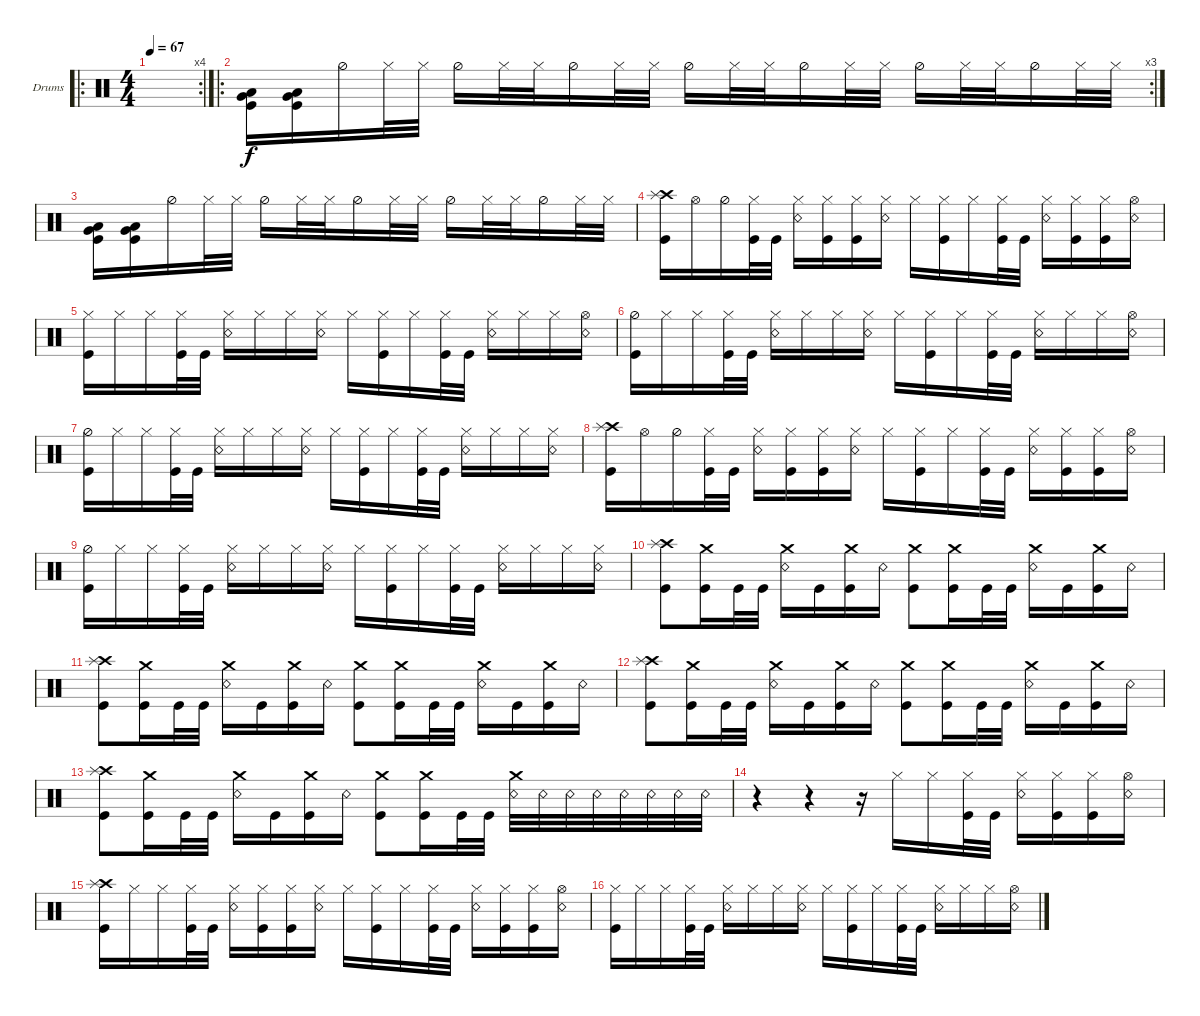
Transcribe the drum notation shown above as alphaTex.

\defaultSystemsLayout 4
\bracketExtendMode groupsimilarinstruments
\firstSystemTrackNameOrientation horizontal
\otherSystemsTrackNameOrientation horizontal
\track ("Drumkit" "Drums") {instrument percussion}
\staff {score}
\articulation defaults
\ro
\rc 4
\ts (4 4)
\tempo 67
\clef neutral
\ks c
|
\ro
\rc 3
("Kick (hit)" "Very Low Tom (hit)" "Low Tom (hit)").16 ("Kick (hit)" "Very Low Tom (hit)" "Low Tom (hit)").16 "Hi-Hat (half)".16 "Hi-Hat (closed)".32 "Hi-Hat (closed)".32 "Hi-Hat (half)".16 "Hi-Hat (closed)".32 "Hi-Hat (closed)".32 "Hi-Hat (half)".16 "Hi-Hat (closed)".32 "Hi-Hat (closed)".32 "Hi-Hat (half)".16 "Hi-Hat (closed)".32 "Hi-Hat (closed)".32 "Hi-Hat (half)".16 "Hi-Hat (closed)".32 "Hi-Hat (closed)".32 "Hi-Hat (half)".16 "Hi-Hat (closed)".32 "Hi-Hat (closed)".32 "Hi-Hat (half)".16 "Hi-Hat (closed)".32 "Hi-Hat (closed)".32 |
("Kick (hit)" "Very Low Tom (hit)" "Low Tom (hit)").16 ("Kick (hit)" "Very Low Tom (hit)" "Low Tom (hit)").16 "Hi-Hat (half)".16 "Hi-Hat (closed)".32 "Hi-Hat (closed)".32 "Hi-Hat (half)".16 "Hi-Hat (closed)".32 "Hi-Hat (closed)".32 "Hi-Hat (half)".16 "Hi-Hat (closed)".32 "Hi-Hat (closed)".32 "Hi-Hat (half)".16 "Hi-Hat (closed)".32 "Hi-Hat (closed)".32 "Hi-Hat (half)".16 "Hi-Hat (closed)".32 "Hi-Hat (closed)".32 |
("Kick (hit)" "Crash high (hit)" "Splash (hit)").16 "Hi-Hat (open)".16 "Hi-Hat (half)".16 ("Kick (hit)" "Hi-Hat (closed)").32 "Kick (hit)".32 ("Snare (rim shot)" "Hi-Hat (closed)").16 ("Hi-Hat (closed)" "Kick (hit)").16 ("Hi-Hat (closed)" "Kick (hit)").16 ("Snare (rim shot)" "Hi-Hat (closed)").16 "Hi-Hat (closed)".16 ("Hi-Hat (closed)" "Kick (hit)").16 "Hi-Hat (closed)".16 ("Kick (hit)" "Hi-Hat (closed)").32 "Kick (hit)".32 ("Snare (rim shot)" "Hi-Hat (closed)").16 ("Hi-Hat (closed)" "Kick (hit)").16 ("Hi-Hat (closed)" "Kick (hit)").16 ("Snare (rim shot)" "Hi-Hat (open)").16 |
("Kick (hit)" "Hi-Hat (closed)").16 "Hi-Hat (closed)".16 "Hi-Hat (closed)".16 ("Kick (hit)" "Hi-Hat (closed)").32 "Kick (hit)".32 ("Snare (rim shot)" "Hi-Hat (closed)").16 "Hi-Hat (closed)".16 "Hi-Hat (closed)".16 ("Snare (rim shot)" "Hi-Hat (closed)").16 "Hi-Hat (closed)".16 ("Hi-Hat (closed)" "Kick (hit)").16 "Hi-Hat (closed)".16 ("Hi-Hat (closed)" "Kick (hit)").32 "Kick (hit)".32 ("Snare (rim shot)" "Hi-Hat (closed)").16 "Hi-Hat (closed)".16 "Hi-Hat (closed)".16 ("Snare (rim shot)" "Hi-Hat (open)").16 |
("Kick (hit)" "Hi-Hat (half)").16 "Hi-Hat (closed)".16 "Hi-Hat (closed)".16 ("Kick (hit)" "Hi-Hat (closed)").32 "Kick (hit)".32 ("Snare (rim shot)" "Hi-Hat (closed)").16 "Hi-Hat (closed)".16 "Hi-Hat (closed)".16 ("Snare (rim shot)" "Hi-Hat (closed)").16 "Hi-Hat (closed)".16 ("Hi-Hat (closed)" "Kick (hit)").16 "Hi-Hat (closed)".16 ("Hi-Hat (closed)" "Kick (hit)").32 "Kick (hit)".32 ("Snare (rim shot)" "Hi-Hat (closed)").16 "Hi-Hat (closed)".16 "Hi-Hat (closed)".16 ("Snare (rim shot)" "Hi-Hat (open)").16 |
("Kick (hit)" "Hi-Hat (half)").16 "Hi-Hat (closed)".16 "Hi-Hat (closed)".16 ("Kick (hit)" "Hi-Hat (closed)").32 "Kick (hit)".32 ("Snare (rim shot)" "Hi-Hat (closed)").16 "Hi-Hat (closed)".16 "Hi-Hat (closed)".16 ("Snare (rim shot)" "Hi-Hat (closed)").16 "Hi-Hat (closed)".16 ("Hi-Hat (closed)" "Kick (hit)").16 "Hi-Hat (closed)".16 ("Hi-Hat (closed)" "Kick (hit)").32 "Kick (hit)".32 ("Snare (rim shot)" "Hi-Hat (closed)").16 "Hi-Hat (closed)".16 "Hi-Hat (closed)".16 ("Snare (rim shot)" "Hi-Hat (closed)").16 |
("Kick (hit)" "Crash high (hit)" "Splash (hit)").16 "Hi-Hat (open)".16 "Hi-Hat (half)".16 ("Kick (hit)" "Hi-Hat (closed)").32 "Kick (hit)".32 ("Snare (rim shot)" "Hi-Hat (closed)").16 ("Hi-Hat (closed)" "Kick (hit)").16 ("Hi-Hat (closed)" "Kick (hit)").16 ("Snare (rim shot)" "Hi-Hat (closed)").16 "Hi-Hat (closed)".16 ("Hi-Hat (closed)" "Kick (hit)").16 "Hi-Hat (closed)".16 ("Kick (hit)" "Hi-Hat (closed)").32 "Kick (hit)".32 ("Snare (rim shot)" "Hi-Hat (closed)").16 ("Hi-Hat (closed)" "Kick (hit)").16 ("Hi-Hat (closed)" "Kick (hit)").16 ("Snare (rim shot)" "Hi-Hat (open)").16 |
("Kick (hit)" "Hi-Hat (half)").16 "Hi-Hat (closed)".16 "Hi-Hat (closed)".16 ("Kick (hit)" "Hi-Hat (closed)").32 "Kick (hit)".32 ("Snare (rim shot)" "Hi-Hat (closed)").16 "Hi-Hat (closed)".16 "Hi-Hat (closed)".16 ("Snare (rim shot)" "Hi-Hat (closed)").16 "Hi-Hat (closed)".16 ("Hi-Hat (closed)" "Kick (hit)").16 "Hi-Hat (closed)".16 ("Hi-Hat (closed)" "Kick (hit)").32 "Kick (hit)".32 ("Snare (rim shot)" "Hi-Hat (closed)").16 "Hi-Hat (closed)".16 "Hi-Hat (closed)".16 ("Snare (rim shot)" "Hi-Hat (closed)").16 |
("Kick (hit)" "Crash high (hit)" "Splash (hit)").8 ("Kick (hit)" "Crash medium (hit)").16 "Kick (hit)".32 "Kick (hit)".32 ("Snare (rim shot)" "Crash medium (hit)").16 "Kick (hit)".16 ("Kick (hit)" "Crash medium (hit)").16 "Snare (rim shot)".16 ("Kick (hit)" "Crash medium (hit)").8 ("Kick (hit)" "Crash medium (hit)").16 "Kick (hit)".32 "Kick (hit)".32 ("Snare (rim shot)" "Crash medium (hit)").16 "Kick (hit)".16 ("Kick (hit)" "Crash medium (hit)").16 "Snare (rim shot)".16 |
("Kick (hit)" "Crash high (hit)" "Splash (hit)").8 ("Kick (hit)" "Crash medium (hit)").16 "Kick (hit)".32 "Kick (hit)".32 ("Snare (rim shot)" "Crash medium (hit)").16 "Kick (hit)".16 ("Kick (hit)" "Crash medium (hit)").16 "Snare (rim shot)".16 ("Kick (hit)" "Crash medium (hit)").8 ("Kick (hit)" "Crash medium (hit)").16 "Kick (hit)".32 "Kick (hit)".32 ("Snare (rim shot)" "Crash medium (hit)").16 "Kick (hit)".16 ("Kick (hit)" "Crash medium (hit)").16 "Snare (rim shot)".16 |
("Kick (hit)" "Crash high (hit)" "Splash (hit)").8 ("Kick (hit)" "Crash medium (hit)").16 "Kick (hit)".32 "Kick (hit)".32 ("Snare (rim shot)" "Crash medium (hit)").16 "Kick (hit)".16 ("Kick (hit)" "Crash medium (hit)").16 "Snare (rim shot)".16 ("Kick (hit)" "Crash medium (hit)").8 ("Kick (hit)" "Crash medium (hit)").16 "Kick (hit)".32 "Kick (hit)".32 ("Snare (rim shot)" "Crash medium (hit)").16 "Kick (hit)".16 ("Kick (hit)" "Crash medium (hit)").16 "Snare (rim shot)".16 |
("Kick (hit)" "Crash high (hit)" "Splash (hit)").8 ("Kick (hit)" "Crash medium (hit)").16 "Kick (hit)".32 "Kick (hit)".32 ("Snare (rim shot)" "Crash medium (hit)").16 "Kick (hit)".16 ("Kick (hit)" "Crash medium (hit)").16 "Snare (rim shot)".16 ("Kick (hit)" "Crash medium (hit)").8 ("Kick (hit)" "Crash medium (hit)").16 "Kick (hit)".32 "Kick (hit)".32 ("Snare (rim shot)" "Crash medium (hit)").32 "Snare (rim shot)".32 "Snare (rim shot)".32 "Snare (rim shot)".32 "Snare (rim shot)".32 "Snare (rim shot)".32 "Snare (rim shot)".32 "Snare (rim shot)".32 |
r.4 r.4 r.16 "Hi-Hat (closed)".16 "Hi-Hat (closed)".16 ("Kick (hit)" "Hi-Hat (closed)").32 "Kick (hit)".32 ("Snare (rim shot)" "Hi-Hat (closed)").16 ("Hi-Hat (closed)" "Kick (hit)").16 ("Hi-Hat (closed)" "Kick (hit)").16 ("Snare (rim shot)" "Hi-Hat (open)").16 |
("Kick (hit)" "Crash high (hit)" "Splash (hit)").16 "Hi-Hat (closed)".16 "Hi-Hat (closed)".16 ("Kick (hit)" "Hi-Hat (closed)").32 "Kick (hit)".32 ("Snare (rim shot)" "Hi-Hat (closed)").16 ("Hi-Hat (closed)" "Kick (hit)").16 ("Hi-Hat (closed)" "Kick (hit)").16 ("Snare (rim shot)" "Hi-Hat (closed)").16 "Hi-Hat (closed)".16 ("Hi-Hat (closed)" "Kick (hit)").16 "Hi-Hat (closed)".16 ("Kick (hit)" "Hi-Hat (closed)").32 "Kick (hit)".32 ("Snare (rim shot)" "Hi-Hat (closed)").16 ("Hi-Hat (closed)" "Kick (hit)").16 ("Hi-Hat (closed)" "Kick (hit)").16 ("Snare (rim shot)" "Hi-Hat (open)").16 |
("Kick (hit)" "Hi-Hat (closed)").16 "Hi-Hat (closed)".16 "Hi-Hat (closed)".16 ("Kick (hit)" "Hi-Hat (closed)").32 "Kick (hit)".32 ("Snare (rim shot)" "Hi-Hat (closed)").16 "Hi-Hat (closed)".16 "Hi-Hat (closed)".16 ("Snare (rim shot)" "Hi-Hat (closed)").16 "Hi-Hat (closed)".16 ("Hi-Hat (closed)" "Kick (hit)").16 "Hi-Hat (closed)".16 ("Hi-Hat (closed)" "Kick (hit)").32 "Kick (hit)".32 ("Snare (rim shot)" "Hi-Hat (closed)").16 "Hi-Hat (closed)".16 "Hi-Hat (closed)".16 ("Snare (rim shot)" "Hi-Hat (open)").16
